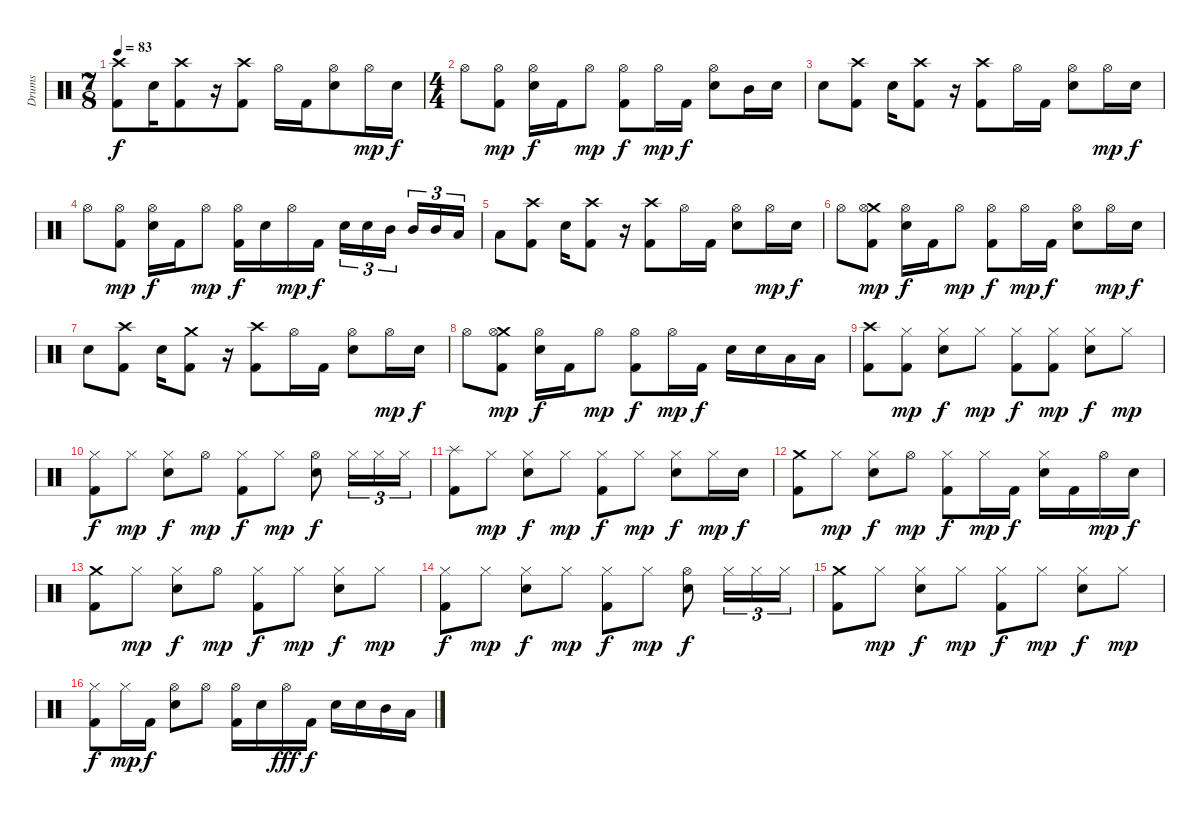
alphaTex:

\track ("Drums" "Drums") {instrument percussion}
\staff {score}
\articulation defaults
\ts (7 8)
\tempo 83
\clef neutral
\ks c
("Crash high (hit)" "Kick (hit) 2").8{dy f} "Electric Snare (hit)".16 ("Crash high (hit)" "Kick (hit) 2").8 r.16 ("Crash high (hit)" "Kick (hit) 2").8 "Hi-Hat (open)".16 "Kick (hit) 2".16 ("Hi-Hat (open)" "Electric Snare (hit)").8 "Hi-Hat (open)".16{dy mp} "Electric Snare (hit)".16{dy f} |
\ts (4 4)
"Hi-Hat (open)".8 ("Hi-Hat (open)" "Kick (hit) 2").8{dy mp} ("Hi-Hat (open)" "Electric Snare (hit)").16{dy f} "Kick (hit) 2".16 "Hi-Hat (open)".8{dy mp} ("Hi-Hat (open)" "Kick (hit) 2").8{dy f} "Hi-Hat (open)".16{dy mp} "Kick (hit) 2".16{dy f} ("Hi-Hat (open)" "Electric Snare (hit)").8 "Mid Tom (hit)".16 "Electric Snare (hit)".16 |
"Electric Snare (hit)".8 ("Crash high (hit)" "Kick (hit) 2").8 "Electric Snare (hit)".16 ("Crash high (hit)" "Kick (hit) 2").8 r.16 ("Crash high (hit)" "Kick (hit) 2").8 "Hi-Hat (open)".16 "Kick (hit) 2".16 ("Hi-Hat (open)" "Electric Snare (hit)").8 "Hi-Hat (open)".16{dy mp} "Electric Snare (hit)".16{dy f} |
"Hi-Hat (open)".8 ("Hi-Hat (open)" "Kick (hit) 2").8{dy mp} ("Hi-Hat (open)" "Electric Snare (hit)").16{dy f} "Kick (hit) 2".16 "Hi-Hat (open)".8{dy mp} ("Hi-Hat (open)" "Kick (hit) 2").16{dy f} "Electric Snare (hit)".16 "Hi-Hat (open)".16{dy mp} "Kick (hit) 2".16{dy f} "Electric Snare (hit)".16{tu (3 2)} "Electric Snare (hit)".16{tu (3 2)} "Mid Tom (hit)".16{tu (3 2)} "Mid Tom (hit)".16{tu (3 2)} "Mid Tom (hit)".16{tu (3 2)} "Low Tom (hit)".16{tu (3 2)} |
"Low Tom (hit)".8 ("Crash high (hit)" "Kick (hit) 2").8 "Electric Snare (hit)".16 ("Crash high (hit)" "Kick (hit) 2").8 r.16 ("Crash high (hit)" "Kick (hit) 2").8 "Hi-Hat (open)".16 "Kick (hit) 2".16 ("Hi-Hat (open)" "Electric Snare (hit)").8 "Hi-Hat (open)".16{dy mp} "Electric Snare (hit)".16{dy f} |
"Hi-Hat (open)".8 ("Crash medium (hit)" "Hi-Hat (open)" "Kick (hit) 2").8{dy mp} ("Hi-Hat (open)" "Electric Snare (hit)").16{dy f} "Kick (hit) 2".16 "Hi-Hat (open)".8{dy mp} ("Hi-Hat (open)" "Kick (hit) 2").8{dy f} "Hi-Hat (open)".16{dy mp} "Kick (hit) 2".16{dy f} ("Hi-Hat (open)" "Electric Snare (hit)").8 "Hi-Hat (open)".16{dy mp} "Electric Snare (hit)".16{dy f} |
"Electric Snare (hit)".8 ("Crash high (hit)" "Kick (hit) 2").8 "Electric Snare (hit)".16 ("Crash medium (hit)" "Kick (hit) 2").8 r.16 ("Crash high (hit)" "Kick (hit) 2").8 "Hi-Hat (open)".16 "Kick (hit) 2".16 ("Hi-Hat (open)" "Electric Snare (hit)").8 "Hi-Hat (open)".16{dy mp} "Electric Snare (hit)".16{dy f} |
"Hi-Hat (open)".8 ("Crash medium (hit)" "Hi-Hat (open)" "Kick (hit) 2").8{dy mp} ("Hi-Hat (open)" "Electric Snare (hit)").16{dy f} "Kick (hit) 2".16 "Hi-Hat (open)".8{dy mp} ("Hi-Hat (open)" "Kick (hit) 2").8{dy f} "Hi-Hat (open)".16{dy mp} "Kick (hit) 2".16{dy f} "Electric Snare (hit)".16 "Electric Snare (hit)".16 "Low Tom (hit)".16 "Low Tom (hit)".16 |
("Crash high (hit)" "Kick (hit) 2").8 ("Hi-Hat (closed)" "Kick (hit) 2").8{dy mp} ("Hi-Hat (closed)" "Electric Snare (hit)").8{dy f} "Hi-Hat (closed)".8{dy mp} ("Hi-Hat (closed)" "Kick (hit) 2").8{dy f} ("Hi-Hat (closed)" "Kick (hit) 2").8{dy mp} ("Hi-Hat (closed)" "Electric Snare (hit)").8{dy f} "Hi-Hat (closed)".8{dy mp} |
("Hi-Hat (closed)" "Kick (hit) 2").8{dy f} "Hi-Hat (closed)".8{dy mp} ("Hi-Hat (closed)" "Electric Snare (hit)").8{dy f} "Hi-Hat (open)".8{dy mp} ("Hi-Hat (closed)" "Kick (hit) 2").8{dy f} "Hi-Hat (closed)".8{dy mp} ("Hi-Hat (open)" "Electric Snare (hit)").8{dy f} "Hi-Hat (closed)".16{tu (3 2)} "Hi-Hat (closed)".16{tu (3 2)} "Hi-Hat (closed)".16{tu (3 2)} |
("Splash (hit)" "Kick (hit) 2").8 "Hi-Hat (closed)".8{dy mp} ("Hi-Hat (closed)" "Electric Snare (hit)").8{dy f} "Hi-Hat (closed)".8{dy mp} ("Hi-Hat (closed)" "Kick (hit) 2").8{dy f} "Hi-Hat (closed)".8{dy mp} ("Hi-Hat (closed)" "Electric Snare (hit)").8{dy f} "Hi-Hat (closed)".16{dy mp} "Electric Snare (hit)".16{dy f} |
("Crash medium (hit)" "Kick (hit) 2").8 "Hi-Hat (closed)".8{dy mp} ("Hi-Hat (closed)" "Electric Snare (hit)").8{dy f} "Hi-Hat (open)".8{dy mp} ("Hi-Hat (closed)" "Kick (hit) 2").8{dy f} "Hi-Hat (closed)".16{dy mp} "Kick (hit) 2".16{dy f} ("Hi-Hat (closed)" "Electric Snare (hit)").16 "Kick (hit) 2".16 "Hi-Hat (open)".16{dy mp} "Electric Snare (hit)".16{dy f} |
("Crash medium (hit)" "Kick (hit) 2").8 "Hi-Hat (closed)".8{dy mp} ("Hi-Hat (closed)" "Electric Snare (hit)").8{dy f} "Hi-Hat (open)".8{dy mp} ("Hi-Hat (closed)" "Kick (hit) 2").8{dy f} "Hi-Hat (closed)".8{dy mp} ("Hi-Hat (closed)" "Electric Snare (hit)").8{dy f} "Hi-Hat (closed)".8{dy mp} |
("Hi-Hat (closed)" "Kick (hit) 2").8{dy f} "Hi-Hat (closed)".8{dy mp} ("Hi-Hat (closed)" "Electric Snare (hit)").8{dy f} "Hi-Hat (closed)".8{dy mp} ("Hi-Hat (closed)" "Kick (hit) 2").8{dy f} "Hi-Hat (closed)".8{dy mp} ("Hi-Hat (open)" "Electric Snare (hit)").8{dy f} "Hi-Hat (closed)".16{tu (3 2)} "Hi-Hat (closed)".16{tu (3 2)} "Hi-Hat (closed)".16{tu (3 2)} |
("Crash medium (hit)" "Kick (hit) 2").8 "Hi-Hat (closed)".8{dy mp} ("Hi-Hat (closed)" "Electric Snare (hit)").8{dy f} "Hi-Hat (closed)".8{dy mp} ("Hi-Hat (closed)" "Kick (hit) 2").8{dy f} "Hi-Hat (closed)".8{dy mp} ("Hi-Hat (closed)" "Electric Snare (hit)").8{dy f} "Hi-Hat (closed)".8{dy mp} |
("Hi-Hat (closed)" "Kick (hit) 2").8{dy f} "Hi-Hat (closed)".16{dy mp} "Kick (hit) 2".16{dy f} ("Hi-Hat (open)" "Electric Snare (hit)").8 "Hi-Hat (open)".8 ("Hi-Hat (open)" "Kick (hit) 2").16 "Electric Snare (hit)".16 "Hi-Hat (open)".16{dy fff} "Kick (hit) 2".16{dy f} "Electric Snare (hit)".16 "Electric Snare (hit)".16 "Mid Tom (hit)".16 "Low Tom (hit)".16
